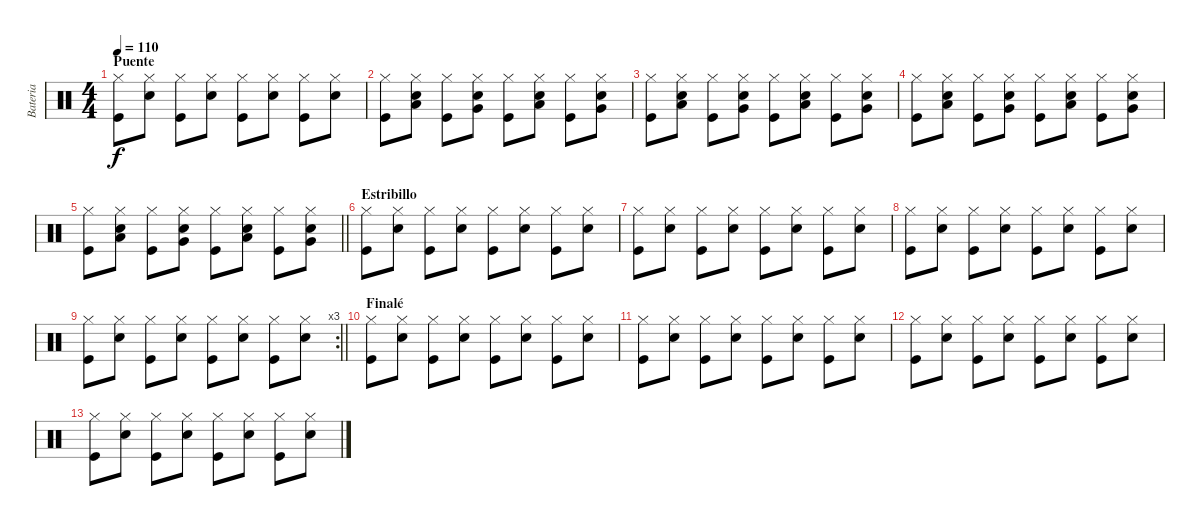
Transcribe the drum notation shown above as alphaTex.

\track ("Bateria" "Bateria") {instrument percussion}
\staff {score}
\articulation defaults
\ts (4 4)
\section ("" "Puente")
\tempo 110
\clef neutral
\ks c
("Hi-Hat (closed)" "Kick (hit)").8{dy f} ("Hi-Hat (closed)" "Snare (hit) 2").8 ("Hi-Hat (closed)" "Kick (hit)").8 ("Hi-Hat (closed)" "Snare (hit) 2").8 ("Hi-Hat (closed)" "Kick (hit)").8 ("Hi-Hat (closed)" "Snare (hit) 2").8 ("Hi-Hat (closed)" "Kick (hit)").8 ("Hi-Hat (closed)" "Snare (hit) 2").8 |
("Hi-Hat (closed)" "Kick (hit)").8 ("Low Floor Tom (hit)" "Hi-Hat (closed)" "Snare (hit) 2").8 ("Hi-Hat (closed)" "Kick (hit)").8 ("Very Low Tom (hit)" "Hi-Hat (closed)" "Snare (hit) 2").8 ("Hi-Hat (closed)" "Kick (hit)").8 ("Low Floor Tom (hit)" "Hi-Hat (closed)" "Snare (hit) 2").8 ("Hi-Hat (closed)" "Kick (hit)").8 ("Very Low Tom (hit)" "Hi-Hat (closed)" "Snare (hit) 2").8 |
("Hi-Hat (closed)" "Kick (hit)").8 ("Low Floor Tom (hit)" "Hi-Hat (closed)" "Snare (hit) 2").8 ("Hi-Hat (closed)" "Kick (hit)").8 ("Very Low Tom (hit)" "Hi-Hat (closed)" "Snare (hit) 2").8 ("Hi-Hat (closed)" "Kick (hit)").8 ("Low Floor Tom (hit)" "Hi-Hat (closed)" "Snare (hit) 2").8 ("Hi-Hat (closed)" "Kick (hit)").8 ("Very Low Tom (hit)" "Hi-Hat (closed)" "Snare (hit) 2").8 |
("Hi-Hat (closed)" "Kick (hit)").8 ("Low Floor Tom (hit)" "Hi-Hat (closed)" "Snare (hit) 2").8 ("Hi-Hat (closed)" "Kick (hit)").8 ("Very Low Tom (hit)" "Hi-Hat (closed)" "Snare (hit) 2").8 ("Hi-Hat (closed)" "Kick (hit)").8 ("Low Floor Tom (hit)" "Hi-Hat (closed)" "Snare (hit) 2").8 ("Hi-Hat (closed)" "Kick (hit)").8 ("Very Low Tom (hit)" "Hi-Hat (closed)" "Snare (hit) 2").8 |
\barLineRight lightlight
("Hi-Hat (closed)" "Kick (hit)").8 ("Low Floor Tom (hit)" "Hi-Hat (closed)" "Snare (hit) 2").8 ("Hi-Hat (closed)" "Kick (hit)").8 ("Very Low Tom (hit)" "Hi-Hat (closed)" "Snare (hit) 2").8 ("Hi-Hat (closed)" "Kick (hit)").8 ("Low Floor Tom (hit)" "Hi-Hat (closed)" "Snare (hit) 2").8 ("Hi-Hat (closed)" "Kick (hit)").8 ("Very Low Tom (hit)" "Hi-Hat (closed)" "Snare (hit) 2").8 |
\section ("" "Estribillo")
("Hi-Hat (closed)" "Kick (hit)").8 ("Hi-Hat (closed)" "Snare (hit) 2").8 ("Hi-Hat (closed)" "Kick (hit)").8 ("Hi-Hat (closed)" "Snare (hit) 2").8 ("Hi-Hat (closed)" "Kick (hit)").8 ("Hi-Hat (closed)" "Snare (hit) 2").8 ("Hi-Hat (closed)" "Kick (hit)").8 ("Hi-Hat (closed)" "Snare (hit) 2").8 |
("Hi-Hat (closed)" "Kick (hit)").8 ("Hi-Hat (closed)" "Snare (hit) 2").8 ("Hi-Hat (closed)" "Kick (hit)").8 ("Hi-Hat (closed)" "Snare (hit) 2").8 ("Hi-Hat (closed)" "Kick (hit)").8 ("Hi-Hat (closed)" "Snare (hit) 2").8 ("Hi-Hat (closed)" "Kick (hit)").8 ("Hi-Hat (closed)" "Snare (hit) 2").8 |
("Hi-Hat (closed)" "Kick (hit)").8 ("Hi-Hat (closed)" "Snare (hit) 2").8 ("Hi-Hat (closed)" "Kick (hit)").8 ("Hi-Hat (closed)" "Snare (hit) 2").8 ("Hi-Hat (closed)" "Kick (hit)").8 ("Hi-Hat (closed)" "Snare (hit) 2").8 ("Hi-Hat (closed)" "Kick (hit)").8 ("Hi-Hat (closed)" "Snare (hit) 2").8 |
\rc 3
\barLineRight lightlight
("Hi-Hat (closed)" "Kick (hit)").8 ("Hi-Hat (closed)" "Snare (hit) 2").8 ("Hi-Hat (closed)" "Kick (hit)").8 ("Hi-Hat (closed)" "Snare (hit) 2").8 ("Hi-Hat (closed)" "Kick (hit)").8 ("Hi-Hat (closed)" "Snare (hit) 2").8 ("Hi-Hat (closed)" "Kick (hit)").8 ("Hi-Hat (closed)" "Snare (hit) 2").8 |
\section ("" "Finalé")
("Hi-Hat (closed)" "Kick (hit)").8 ("Hi-Hat (closed)" "Snare (hit) 2").8 ("Hi-Hat (closed)" "Kick (hit)").8 ("Hi-Hat (closed)" "Snare (hit) 2").8 ("Hi-Hat (closed)" "Kick (hit)").8 ("Hi-Hat (closed)" "Snare (hit) 2").8 ("Hi-Hat (closed)" "Kick (hit)").8 ("Hi-Hat (closed)" "Snare (hit) 2").8 |
("Hi-Hat (closed)" "Kick (hit)").8 ("Hi-Hat (closed)" "Snare (hit) 2").8 ("Hi-Hat (closed)" "Kick (hit)").8 ("Hi-Hat (closed)" "Snare (hit) 2").8 ("Hi-Hat (closed)" "Kick (hit)").8 ("Hi-Hat (closed)" "Snare (hit) 2").8 ("Hi-Hat (closed)" "Kick (hit)").8 ("Hi-Hat (closed)" "Snare (hit) 2").8 |
("Hi-Hat (closed)" "Kick (hit)").8 ("Hi-Hat (closed)" "Snare (hit) 2").8 ("Hi-Hat (closed)" "Kick (hit)").8 ("Hi-Hat (closed)" "Snare (hit) 2").8 ("Hi-Hat (closed)" "Kick (hit)").8 ("Hi-Hat (closed)" "Snare (hit) 2").8 ("Hi-Hat (closed)" "Kick (hit)").8 ("Hi-Hat (closed)" "Snare (hit) 2").8 |
("Hi-Hat (closed)" "Kick (hit)").8 ("Hi-Hat (closed)" "Snare (hit) 2").8 ("Hi-Hat (closed)" "Kick (hit)").8 ("Hi-Hat (closed)" "Snare (hit) 2").8 ("Hi-Hat (closed)" "Kick (hit)").8 ("Hi-Hat (closed)" "Snare (hit) 2").8 ("Hi-Hat (closed)" "Kick (hit)").8 ("Hi-Hat (closed)" "Snare (hit) 2").8
